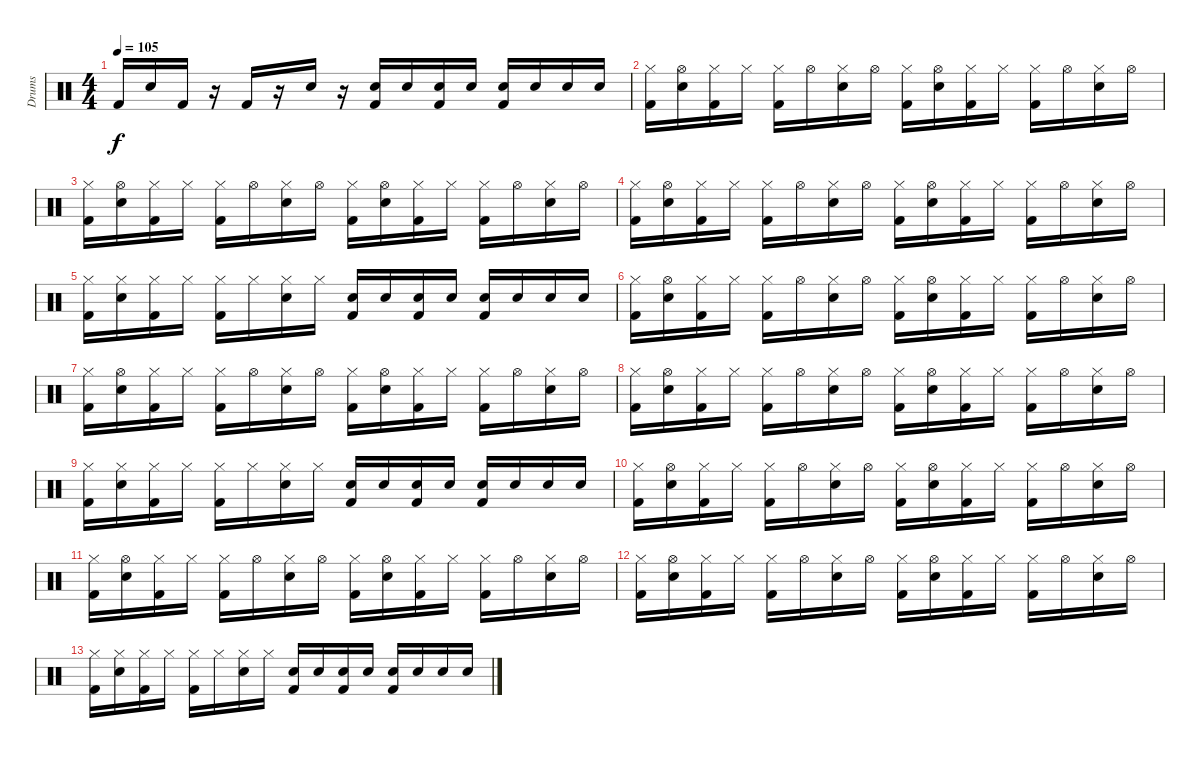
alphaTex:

\track ("Drums" "Drums") {instrument percussion}
\staff {score}
\articulation defaults
\ts (4 4)
\tempo 105
\clef neutral
\ks c "Kick (hit) 2".16{dy f} "Snare (hit) 2".16 "Kick (hit) 2".16
r.16 "Kick (hit) 2".16 r.16 "Snare (hit) 2".16 r.16 ("Electric Snare (hit)" "Kick (hit) 2").16 "Electric Snare (hit)".16 ("Electric Snare (hit)" "Kick (hit) 2").16 "Electric Snare (hit)".16 ("Electric Snare (hit)" "Kick (hit) 2").16 "Electric Snare (hit)".16 "Electric Snare (hit)".16 "Electric Snare (hit)".16 |
("Hi-Hat (closed)" "Kick (hit) 2").16 ("Hi-Hat (open)" "Snare (hit) 2").16 ("Hi-Hat (closed)" "Kick (hit) 2").16 "Hi-Hat (closed)".16 ("Hi-Hat (closed)" "Kick (hit) 2").16 "Hi-Hat (open)".16 ("Hi-Hat (closed)" "Snare (hit) 2").16 "Hi-Hat (open)".16 ("Hi-Hat (closed)" "Kick (hit) 2").16 ("Hi-Hat (open)" "Snare (hit) 2").16 ("Hi-Hat (closed)" "Kick (hit) 2").16 "Hi-Hat (closed)".16 ("Hi-Hat (closed)" "Kick (hit) 2").16 "Hi-Hat (open)".16 ("Hi-Hat (closed)" "Snare (hit) 2").16 "Hi-Hat (open)".16 |
("Hi-Hat (closed)" "Kick (hit) 2").16 ("Hi-Hat (open)" "Snare (hit) 2").16 ("Hi-Hat (closed)" "Kick (hit) 2").16 "Hi-Hat (closed)".16 ("Hi-Hat (closed)" "Kick (hit) 2").16 "Hi-Hat (open)".16 ("Hi-Hat (closed)" "Snare (hit) 2").16 "Hi-Hat (open)".16 ("Hi-Hat (closed)" "Kick (hit) 2").16 ("Hi-Hat (open)" "Snare (hit) 2").16 ("Hi-Hat (closed)" "Kick (hit) 2").16 "Hi-Hat (closed)".16 ("Hi-Hat (closed)" "Kick (hit) 2").16 "Hi-Hat (open)".16 ("Hi-Hat (closed)" "Snare (hit) 2").16 "Hi-Hat (open)".16 |
("Hi-Hat (closed)" "Kick (hit) 2").16 ("Hi-Hat (open)" "Snare (hit) 2").16 ("Hi-Hat (closed)" "Kick (hit) 2").16 "Hi-Hat (closed)".16 ("Hi-Hat (closed)" "Kick (hit) 2").16 "Hi-Hat (open)".16 ("Hi-Hat (closed)" "Snare (hit) 2").16 "Hi-Hat (open)".16 ("Hi-Hat (closed)" "Kick (hit) 2").16 ("Hi-Hat (open)" "Snare (hit) 2").16 ("Hi-Hat (closed)" "Kick (hit) 2").16 "Hi-Hat (closed)".16 ("Hi-Hat (closed)" "Kick (hit) 2").16 "Hi-Hat (open)".16 ("Hi-Hat (closed)" "Snare (hit) 2").16 "Hi-Hat (open)".16 |
("Hi-Hat (closed)" "Kick (hit) 2").16 ("Hi-Hat (closed)" "Snare (hit) 2").16 ("Hi-Hat (closed)" "Kick (hit) 2").16 "Hi-Hat (closed)".16 ("Hi-Hat (closed)" "Kick (hit) 2").16 "Hi-Hat (closed)".16 ("Hi-Hat (closed)" "Snare (hit) 2").16 "Hi-Hat (closed)".16 ("Electric Snare (hit)" "Kick (hit) 2").16 "Electric Snare (hit)".16 ("Electric Snare (hit)" "Kick (hit) 2").16 "Electric Snare (hit)".16 ("Electric Snare (hit)" "Kick (hit) 2").16 "Electric Snare (hit)".16 "Electric Snare (hit)".16 "Electric Snare (hit)".16 |
("Hi-Hat (closed)" "Kick (hit) 2").16{volume 0} ("Hi-Hat (open)" "Snare (hit) 2").16 ("Hi-Hat (closed)" "Kick (hit) 2").16 "Hi-Hat (closed)".16 ("Hi-Hat (closed)" "Kick (hit) 2").16 "Hi-Hat (open)".16 ("Hi-Hat (closed)" "Snare (hit) 2").16 "Hi-Hat (open)".16 ("Hi-Hat (closed)" "Kick (hit) 2").16 ("Hi-Hat (open)" "Snare (hit) 2").16 ("Hi-Hat (closed)" "Kick (hit) 2").16 "Hi-Hat (closed)".16 ("Hi-Hat (closed)" "Kick (hit) 2").16 "Hi-Hat (open)".16 ("Hi-Hat (closed)" "Snare (hit) 2").16 "Hi-Hat (open)".16 |
("Hi-Hat (closed)" "Kick (hit) 2").16 ("Hi-Hat (open)" "Snare (hit) 2").16 ("Hi-Hat (closed)" "Kick (hit) 2").16 "Hi-Hat (closed)".16 ("Hi-Hat (closed)" "Kick (hit) 2").16 "Hi-Hat (open)".16 ("Hi-Hat (closed)" "Snare (hit) 2").16 "Hi-Hat (open)".16 ("Hi-Hat (closed)" "Kick (hit) 2").16 ("Hi-Hat (open)" "Snare (hit) 2").16 ("Hi-Hat (closed)" "Kick (hit) 2").16 "Hi-Hat (closed)".16 ("Hi-Hat (closed)" "Kick (hit) 2").16 "Hi-Hat (open)".16 ("Hi-Hat (closed)" "Snare (hit) 2").16 "Hi-Hat (open)".16 |
("Hi-Hat (closed)" "Kick (hit) 2").16 ("Hi-Hat (open)" "Snare (hit) 2").16 ("Hi-Hat (closed)" "Kick (hit) 2").16 "Hi-Hat (closed)".16 ("Hi-Hat (closed)" "Kick (hit) 2").16 "Hi-Hat (open)".16 ("Hi-Hat (closed)" "Snare (hit) 2").16 "Hi-Hat (open)".16 ("Hi-Hat (closed)" "Kick (hit) 2").16 ("Hi-Hat (open)" "Snare (hit) 2").16 ("Hi-Hat (closed)" "Kick (hit) 2").16 "Hi-Hat (closed)".16 ("Hi-Hat (closed)" "Kick (hit) 2").16 "Hi-Hat (open)".16 ("Hi-Hat (closed)" "Snare (hit) 2").16 "Hi-Hat (open)".16 |
("Hi-Hat (closed)" "Kick (hit) 2").16 ("Hi-Hat (closed)" "Snare (hit) 2").16 ("Hi-Hat (closed)" "Kick (hit) 2").16 "Hi-Hat (closed)".16 ("Hi-Hat (closed)" "Kick (hit) 2").16 "Hi-Hat (closed)".16 ("Hi-Hat (closed)" "Snare (hit) 2").16 "Hi-Hat (closed)".16 ("Electric Snare (hit)" "Kick (hit) 2").16 "Electric Snare (hit)".16 ("Electric Snare (hit)" "Kick (hit) 2").16 "Electric Snare (hit)".16 ("Electric Snare (hit)" "Kick (hit) 2").16 "Electric Snare (hit)".16 "Electric Snare (hit)".16 "Electric Snare (hit)".16 |
("Hi-Hat (closed)" "Kick (hit) 2").16 ("Hi-Hat (open)" "Snare (hit) 2").16 ("Hi-Hat (closed)" "Kick (hit) 2").16 "Hi-Hat (closed)".16 ("Hi-Hat (closed)" "Kick (hit) 2").16 "Hi-Hat (open)".16 ("Hi-Hat (closed)" "Snare (hit) 2").16 "Hi-Hat (open)".16 ("Hi-Hat (closed)" "Kick (hit) 2").16 ("Hi-Hat (open)" "Snare (hit) 2").16 ("Hi-Hat (closed)" "Kick (hit) 2").16 "Hi-Hat (closed)".16 ("Hi-Hat (closed)" "Kick (hit) 2").16 "Hi-Hat (open)".16 ("Hi-Hat (closed)" "Snare (hit) 2").16 "Hi-Hat (open)".16 |
("Hi-Hat (closed)" "Kick (hit) 2").16 ("Hi-Hat (open)" "Snare (hit) 2").16 ("Hi-Hat (closed)" "Kick (hit) 2").16 "Hi-Hat (closed)".16 ("Hi-Hat (closed)" "Kick (hit) 2").16 "Hi-Hat (open)".16 ("Hi-Hat (closed)" "Snare (hit) 2").16 "Hi-Hat (open)".16 ("Hi-Hat (closed)" "Kick (hit) 2").16 ("Hi-Hat (open)" "Snare (hit) 2").16 ("Hi-Hat (closed)" "Kick (hit) 2").16 "Hi-Hat (closed)".16 ("Hi-Hat (closed)" "Kick (hit) 2").16 "Hi-Hat (open)".16 ("Hi-Hat (closed)" "Snare (hit) 2").16 "Hi-Hat (open)".16 |
("Hi-Hat (closed)" "Kick (hit) 2").16 ("Hi-Hat (open)" "Snare (hit) 2").16 ("Hi-Hat (closed)" "Kick (hit) 2").16 "Hi-Hat (closed)".16 ("Hi-Hat (closed)" "Kick (hit) 2").16 "Hi-Hat (open)".16 ("Hi-Hat (closed)" "Snare (hit) 2").16 "Hi-Hat (open)".16 ("Hi-Hat (closed)" "Kick (hit) 2").16 ("Hi-Hat (open)" "Snare (hit) 2").16 ("Hi-Hat (closed)" "Kick (hit) 2").16 "Hi-Hat (closed)".16 ("Hi-Hat (closed)" "Kick (hit) 2").16 "Hi-Hat (open)".16 ("Hi-Hat (closed)" "Snare (hit) 2").16 "Hi-Hat (open)".16 |
("Hi-Hat (closed)" "Kick (hit) 2").16 ("Hi-Hat (closed)" "Snare (hit) 2").16 ("Hi-Hat (closed)" "Kick (hit) 2").16 "Hi-Hat (closed)".16 ("Hi-Hat (closed)" "Kick (hit) 2").16 "Hi-Hat (closed)".16 ("Hi-Hat (closed)" "Snare (hit) 2").16 "Hi-Hat (closed)".16 ("Electric Snare (hit)" "Kick (hit) 2").16 "Electric Snare (hit)".16 ("Electric Snare (hit)" "Kick (hit) 2").16 "Electric Snare (hit)".16 ("Electric Snare (hit)" "Kick (hit) 2").16 "Electric Snare (hit)".16 "Electric Snare (hit)".16 "Electric Snare (hit)".16
